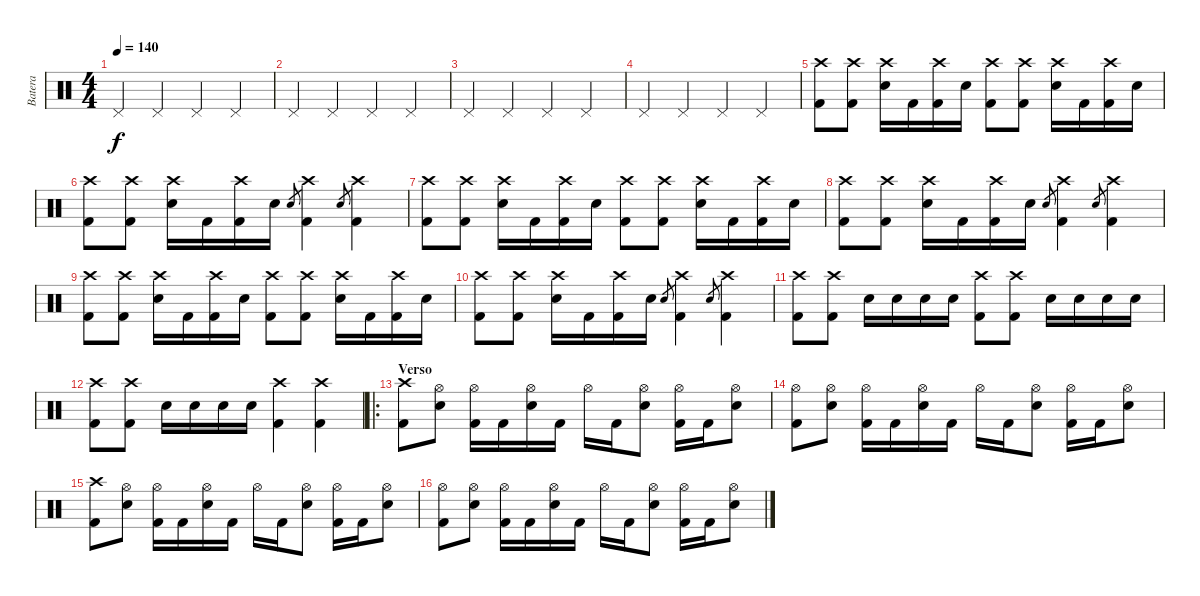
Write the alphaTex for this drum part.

\track ("Batera" "Batera") {instrument percussion}
\staff {score}
\articulation defaults
\ts (4 4)
\tempo 140
\clef neutral
\ks c "Pedal Hi-Hat (hit)".4{dy f} "Pedal Hi-Hat (hit)".4 "Pedal Hi-Hat (hit)".4 "Pedal Hi-Hat (hit)".4
|
"Pedal Hi-Hat (hit)".4 "Pedal Hi-Hat (hit)".4 "Pedal Hi-Hat (hit)".4 "Pedal Hi-Hat (hit)".4 |
"Pedal Hi-Hat (hit)".4 "Pedal Hi-Hat (hit)".4 "Pedal Hi-Hat (hit)".4 "Pedal Hi-Hat (hit)".4 |
"Pedal Hi-Hat (hit)".4 "Pedal Hi-Hat (hit)".4 "Pedal Hi-Hat (hit)".4 "Pedal Hi-Hat (hit)".4 |
("Crash high (hit)" "Kick (hit) 2").8 ("Crash high (hit)" "Kick (hit) 2").8 ("Crash high (hit)" "Snare (hit) 2").16 "Kick (hit) 2".16 ("Crash high (hit)" "Kick (hit) 2").16 "Snare (hit) 2".16 ("Crash high (hit)" "Kick (hit) 2").8 ("Crash high (hit)" "Kick (hit) 2").8 ("Crash high (hit)" "Snare (hit) 2").16 "Kick (hit) 2".16 ("Crash high (hit)" "Kick (hit) 2").16 "Snare (hit) 2".16 |
("Crash high (hit)" "Kick (hit) 2").8 ("Crash high (hit)" "Kick (hit) 2").8 ("Crash high (hit)" "Snare (hit) 2").16 "Kick (hit) 2".16 ("Crash high (hit)" "Kick (hit) 2").16 "Snare (hit) 2".16 "Snare (hit) 2".8{gr} ("Crash high (hit)" "Kick (hit) 2").4 "Snare (hit) 2".8{gr} ("Crash high (hit)" "Kick (hit) 2").4 |
("Crash high (hit)" "Kick (hit) 2").8 ("Crash high (hit)" "Kick (hit) 2").8 ("Crash high (hit)" "Snare (hit) 2").16 "Kick (hit) 2".16 ("Crash high (hit)" "Kick (hit) 2").16 "Snare (hit) 2".16 ("Crash high (hit)" "Kick (hit) 2").8 ("Crash high (hit)" "Kick (hit) 2").8 ("Crash high (hit)" "Snare (hit) 2").16 "Kick (hit) 2".16 ("Crash high (hit)" "Kick (hit) 2").16 "Snare (hit) 2".16 |
("Crash high (hit)" "Kick (hit) 2").8 ("Crash high (hit)" "Kick (hit) 2").8 ("Crash high (hit)" "Snare (hit) 2").16 "Kick (hit) 2".16 ("Crash high (hit)" "Kick (hit) 2").16 "Snare (hit) 2".16 "Snare (hit) 2".8{gr} ("Crash high (hit)" "Kick (hit) 2").4 "Snare (hit) 2".8{gr} ("Crash high (hit)" "Kick (hit) 2").4 |
("Crash high (hit)" "Kick (hit) 2").8 ("Crash high (hit)" "Kick (hit) 2").8 ("Crash high (hit)" "Snare (hit) 2").16 "Kick (hit) 2".16 ("Crash high (hit)" "Kick (hit) 2").16 "Snare (hit) 2".16 ("Crash high (hit)" "Kick (hit) 2").8 ("Crash high (hit)" "Kick (hit) 2").8 ("Crash high (hit)" "Snare (hit) 2").16 "Kick (hit) 2".16 ("Crash high (hit)" "Kick (hit) 2").16 "Snare (hit) 2".16 |
("Crash high (hit)" "Kick (hit) 2").8 ("Crash high (hit)" "Kick (hit) 2").8 ("Crash high (hit)" "Snare (hit) 2").16 "Kick (hit) 2".16 ("Crash high (hit)" "Kick (hit) 2").16 "Snare (hit) 2".16 "Snare (hit) 2".8{gr} ("Crash high (hit)" "Kick (hit) 2").4 "Snare (hit) 2".8{gr} ("Crash high (hit)" "Kick (hit) 2").4 |
("Crash high (hit)" "Kick (hit) 2").8 ("Crash high (hit)" "Kick (hit) 2").8 "Snare (hit) 2".16 "Snare (hit) 2".16 "Snare (hit) 2".16 "Snare (hit) 2".16 ("Crash high (hit)" "Kick (hit) 2").8 ("Crash high (hit)" "Kick (hit) 2").8 "Snare (hit) 2".16 "Snare (hit) 2".16 "Snare (hit) 2".16 "Snare (hit) 2".16 |
("Crash high (hit)" "Kick (hit) 2").8 ("Crash high (hit)" "Kick (hit) 2").8 "Snare (hit) 2".16 "Snare (hit) 2".16 "Snare (hit) 2".16 "Snare (hit) 2".16 ("Crash high (hit)" "Kick (hit) 2").4 ("Crash high (hit)" "Kick (hit) 2").4 |
\ro
\section ("" "Verso")
("Crash high (hit)" "Kick (hit) 2").8 ("Hi-Hat (open)" "Snare (hit) 2").8 ("Hi-Hat (open)" "Kick (hit) 2").16 "Kick (hit) 2".16 ("Hi-Hat (open)" "Snare (hit) 2").16 "Kick (hit) 2".16 "Hi-Hat (open)".16 "Kick (hit) 2".16 ("Hi-Hat (open)" "Snare (hit) 2").8 ("Hi-Hat (open)" "Kick (hit) 2").16 "Kick (hit) 2".16 ("Hi-Hat (open)" "Snare (hit) 2").8 |
("Hi-Hat (open)" "Kick (hit) 2").8 ("Hi-Hat (open)" "Snare (hit) 2").8 ("Hi-Hat (open)" "Kick (hit) 2").16 "Kick (hit) 2".16 ("Hi-Hat (open)" "Snare (hit) 2").16 "Kick (hit) 2".16 "Hi-Hat (open)".16 "Kick (hit) 2".16 ("Hi-Hat (open)" "Snare (hit) 2").8 ("Hi-Hat (open)" "Kick (hit) 2").16 "Kick (hit) 2".16 ("Hi-Hat (open)" "Snare (hit) 2").8 |
("Crash high (hit)" "Kick (hit) 2").8 ("Hi-Hat (open)" "Snare (hit) 2").8 ("Hi-Hat (open)" "Kick (hit) 2").16 "Kick (hit) 2".16 ("Hi-Hat (open)" "Snare (hit) 2").16 "Kick (hit) 2".16 "Hi-Hat (open)".16 "Kick (hit) 2".16 ("Hi-Hat (open)" "Snare (hit) 2").8 ("Hi-Hat (open)" "Kick (hit) 2").16 "Kick (hit) 2".16 ("Hi-Hat (open)" "Snare (hit) 2").8 |
("Hi-Hat (open)" "Kick (hit) 2").8 ("Hi-Hat (open)" "Snare (hit) 2").8 ("Hi-Hat (open)" "Kick (hit) 2").16 "Kick (hit) 2".16 ("Hi-Hat (open)" "Snare (hit) 2").16 "Kick (hit) 2".16 "Hi-Hat (open)".16 "Kick (hit) 2".16 ("Hi-Hat (open)" "Snare (hit) 2").8 ("Hi-Hat (open)" "Kick (hit) 2").16 "Kick (hit) 2".16 ("Hi-Hat (open)" "Snare (hit) 2").8
